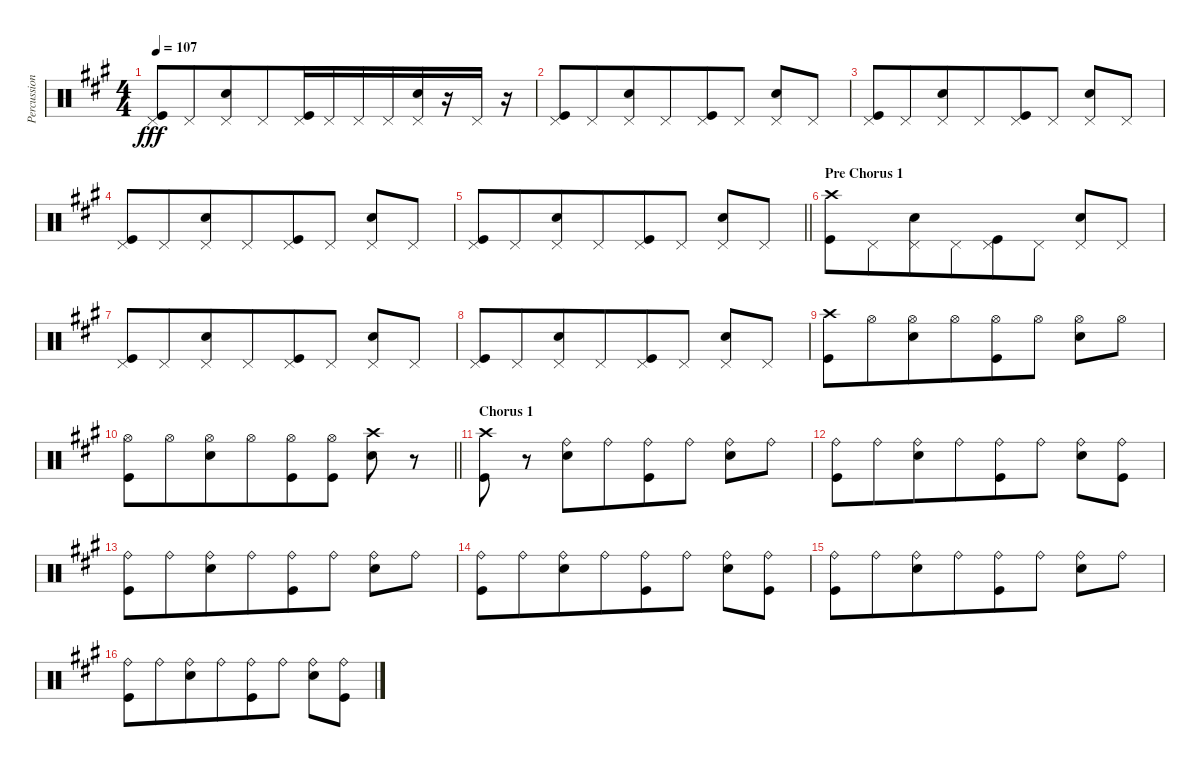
\track ("Percussion" "Percussion") {instrument percussion}
\staff {score}
\articulation defaults
\ts (4 4)
\tempo 107
\clef neutral
\ks a
("Kick (hit)" "Pedal Hi-Hat (hit)").8{dy fff} "Pedal Hi-Hat (hit)".8{beam merge} ("Electric Snare (hit)" "Pedal Hi-Hat (hit)").8{beam merge} "Pedal Hi-Hat (hit)".8{beam merge} ("Kick (hit)" "Pedal Hi-Hat (hit)").16{beam merge} "Pedal Hi-Hat (hit)".16 "Pedal Hi-Hat (hit)".16{beam merge} "Pedal Hi-Hat (hit)".16{beam merge} ("Electric Snare (hit)" "Pedal Hi-Hat (hit)").16 r.16{beam merge} "Pedal Hi-Hat (hit)".16{beam merge} r.16 |
("Kick (hit)" "Pedal Hi-Hat (hit)").8 "Pedal Hi-Hat (hit)".8{beam merge} ("Electric Snare (hit)" "Pedal Hi-Hat (hit)").8{beam merge} "Pedal Hi-Hat (hit)".8{beam merge} ("Kick (hit)" "Pedal Hi-Hat (hit)").8{beam merge} "Pedal Hi-Hat (hit)".8 ("Electric Snare (hit)" "Pedal Hi-Hat (hit)").8{beam merge} "Pedal Hi-Hat (hit)".8 |
("Kick (hit)" "Pedal Hi-Hat (hit)").8 "Pedal Hi-Hat (hit)".8{beam merge} ("Electric Snare (hit)" "Pedal Hi-Hat (hit)").8{beam merge} "Pedal Hi-Hat (hit)".8{beam merge} ("Kick (hit)" "Pedal Hi-Hat (hit)").8{beam merge} "Pedal Hi-Hat (hit)".8 ("Electric Snare (hit)" "Pedal Hi-Hat (hit)").8{beam merge} "Pedal Hi-Hat (hit)".8 |
("Kick (hit)" "Pedal Hi-Hat (hit)").8 "Pedal Hi-Hat (hit)".8{beam merge} ("Electric Snare (hit)" "Pedal Hi-Hat (hit)").8{beam merge} "Pedal Hi-Hat (hit)".8{beam merge} ("Kick (hit)" "Pedal Hi-Hat (hit)").8{beam merge} "Pedal Hi-Hat (hit)".8 ("Electric Snare (hit)" "Pedal Hi-Hat (hit)").8{beam merge} "Pedal Hi-Hat (hit)".8 |
\barLineRight lightlight
("Kick (hit)" "Pedal Hi-Hat (hit)").8 "Pedal Hi-Hat (hit)".8{beam merge} ("Electric Snare (hit)" "Pedal Hi-Hat (hit)").8{beam merge} "Pedal Hi-Hat (hit)".8{beam merge} ("Kick (hit)" "Pedal Hi-Hat (hit)").8{beam merge} "Pedal Hi-Hat (hit)".8 ("Electric Snare (hit)" "Pedal Hi-Hat (hit)").8{beam merge} "Pedal Hi-Hat (hit)".8 |
\section ("" "Pre Chorus 1")
("Kick (hit)" "Crash high (hit)").8 "Pedal Hi-Hat (hit)".8{beam merge} ("Electric Snare (hit)" "Pedal Hi-Hat (hit)").8{beam merge} "Pedal Hi-Hat (hit)".8{beam merge} ("Kick (hit)" "Pedal Hi-Hat (hit)").8{beam merge} "Pedal Hi-Hat (hit)".8 ("Electric Snare (hit)" "Pedal Hi-Hat (hit)").8{beam merge} "Pedal Hi-Hat (hit)".8 |
("Kick (hit)" "Pedal Hi-Hat (hit)").8 "Pedal Hi-Hat (hit)".8{beam merge} ("Electric Snare (hit)" "Pedal Hi-Hat (hit)").8{beam merge} "Pedal Hi-Hat (hit)".8{beam merge} ("Kick (hit)" "Pedal Hi-Hat (hit)").8{beam merge} "Pedal Hi-Hat (hit)".8 ("Electric Snare (hit)" "Pedal Hi-Hat (hit)").8{beam merge} "Pedal Hi-Hat (hit)".8 |
("Kick (hit)" "Pedal Hi-Hat (hit)").8 "Pedal Hi-Hat (hit)".8{beam merge} ("Electric Snare (hit)" "Pedal Hi-Hat (hit)").8{beam merge} "Pedal Hi-Hat (hit)".8{beam merge} ("Kick (hit)" "Pedal Hi-Hat (hit)").8{beam merge} "Pedal Hi-Hat (hit)".8 ("Electric Snare (hit)" "Pedal Hi-Hat (hit)").8{beam merge} "Pedal Hi-Hat (hit)".8 |
("Kick (hit)" "Crash high (hit)").8 "Hi-Hat (open)".8{beam merge} ("Electric Snare (hit)" "Hi-Hat (open)").8{beam merge} "Hi-Hat (open)".8{beam merge} ("Kick (hit)" "Hi-Hat (open)").8{beam merge} "Hi-Hat (open)".8 ("Electric Snare (hit)" "Hi-Hat (open)").8{beam merge} "Hi-Hat (open)".8 |
\barLineRight lightlight
("Kick (hit)" "Hi-Hat (open)").8 "Hi-Hat (open)".8{beam merge} ("Electric Snare (hit)" "Hi-Hat (open)").8{beam merge} "Hi-Hat (open)".8{beam merge} ("Kick (hit)" "Hi-Hat (open)").8{beam merge} ("Kick (hit)" "Hi-Hat (open)").8 ("Electric Snare (hit)" "Crash high (hit)").8{beam merge} r.8 |
\section ("" "Chorus 1")
("Kick (hit)" "Crash high (hit)").8 r.8{beam merge} ("Electric Snare (hit)" "Ride (bell)").8{beam merge} "Ride (bell)".8{beam merge} ("Ride (bell)" "Kick (hit)").8{beam merge} "Ride (bell)".8 ("Ride (bell)" "Electric Snare (hit)").8{beam merge} "Ride (bell)".8 |
("Kick (hit)" "Ride (bell)").8 "Ride (bell)".8{beam merge} ("Electric Snare (hit)" "Ride (bell)").8{beam merge} "Ride (bell)".8{beam merge} ("Ride (bell)" "Kick (hit)").8{beam merge} "Ride (bell)".8 ("Ride (bell)" "Electric Snare (hit)").8{beam merge} ("Ride (bell)" "Kick (hit)").8 |
("Kick (hit)" "Ride (bell)").8 "Ride (bell)".8{beam merge} ("Electric Snare (hit)" "Ride (bell)").8{beam merge} "Ride (bell)".8{beam merge} ("Ride (bell)" "Kick (hit)").8{beam merge} "Ride (bell)".8 ("Ride (bell)" "Electric Snare (hit)").8{beam merge} "Ride (bell)".8 |
("Kick (hit)" "Ride (bell)").8 "Ride (bell)".8{beam merge} ("Electric Snare (hit)" "Ride (bell)").8{beam merge} "Ride (bell)".8{beam merge} ("Ride (bell)" "Kick (hit)").8{beam merge} "Ride (bell)".8 ("Ride (bell)" "Electric Snare (hit)").8{beam merge} ("Ride (bell)" "Kick (hit)").8 |
("Kick (hit)" "Ride (bell)").8 "Ride (bell)".8{beam merge} ("Electric Snare (hit)" "Ride (bell)").8{beam merge} "Ride (bell)".8{beam merge} ("Ride (bell)" "Kick (hit)").8{beam merge} "Ride (bell)".8 ("Ride (bell)" "Electric Snare (hit)").8{beam merge} "Ride (bell)".8 |
("Kick (hit)" "Ride (bell)").8 "Ride (bell)".8{beam merge} ("Electric Snare (hit)" "Ride (bell)").8{beam merge} "Ride (bell)".8{beam merge} ("Ride (bell)" "Kick (hit)").8{beam merge} "Ride (bell)".8 ("Ride (bell)" "Electric Snare (hit)").8{beam merge} ("Ride (bell)" "Kick (hit)").8
